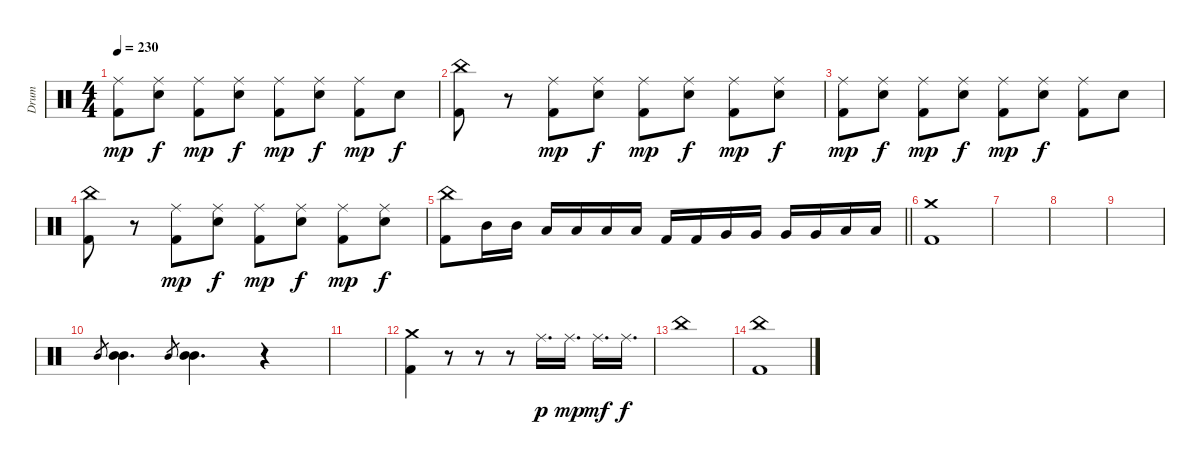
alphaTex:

\track ("Drum" "Drum") {instrument percussion}
\staff {score}
\articulation defaults
\ts (4 4)
\tempo 230
\clef neutral
\ks c
("Ride (middle)" "Kick (hit) 2").8{dy mp} ("Ride (middle)" "Electric Snare (hit)").8{dy f} ("Ride (middle)" "Kick (hit) 2").8{dy mp} ("Ride (middle)" "Electric Snare (hit)").8{dy f} ("Ride (middle)" "Kick (hit) 2").8{dy mp} ("Ride (middle)" "Electric Snare (hit)").8{dy f} ("Ride (middle)" "Kick (hit) 2").8{dy mp} "Electric Snare (hit)".8{dy f} |
("China (hit)" "Kick (hit) 2").8 r.8 ("Ride (middle)" "Kick (hit) 2").8{dy mp} ("Ride (middle)" "Electric Snare (hit)").8{dy f} ("Ride (middle)" "Kick (hit) 2").8{dy mp} ("Ride (middle)" "Electric Snare (hit)").8{dy f} ("Ride (middle)" "Kick (hit) 2").8{dy mp} ("Ride (middle)" "Electric Snare (hit)").8{dy f} |
("Ride (middle)" "Kick (hit) 2").8{dy mp} ("Ride (middle)" "Electric Snare (hit)").8{dy f} ("Ride (middle)" "Kick (hit) 2").8{dy mp} ("Ride (middle)" "Electric Snare (hit)").8{dy f} ("Ride (middle)" "Kick (hit) 2").8{dy mp} ("Ride (middle)" "Electric Snare (hit)").8{dy f} ("Ride (middle)" "Kick (hit) 2").8 "Electric Snare (hit)".8 |
("China (hit)" "Kick (hit) 2").8 r.8 ("Ride (middle)" "Kick (hit) 2").8{dy mp} ("Ride (middle)" "Electric Snare (hit)").8{dy f} ("Ride (middle)" "Kick (hit) 2").8{dy mp} ("Ride (middle)" "Electric Snare (hit)").8{dy f} ("Ride (middle)" "Kick (hit) 2").8{dy mp} ("Ride (middle)" "Electric Snare (hit)").8{dy f} |
\barLineRight lightlight
("China (hit)" "Kick (hit) 2").8 "Mid Tom (hit)".16 "Mid Tom (hit)".16 "Low Tom (hit)".16 "Low Tom (hit)".16 "Low Tom (hit)".16 "Low Tom (hit)".16 "Kick (hit) 2".16 "Kick (hit) 2".16 "Very Low Tom (hit)".16 "Very Low Tom (hit)".16 "Very Low Tom (hit)".16 "Very Low Tom (hit)".16 "Low Floor Tom (hit)".16 "Low Floor Tom (hit)".16 |
("Crash medium (hit)" "Kick (hit) 2").1 |
|
|
|
"Mid Tom (hit)".8{gr} ("Mid Tom (hit)" "Mid Tom (hit)").4{d} "Mid Tom (hit)".8{gr} ("Mid Tom (hit)" "Mid Tom (hit)").4{d} r.4 |
|
("Crash medium (hit)" "Kick (hit) 2").4 r.8 r.8 r.8 "Ride (middle)".16{d dy p} "Ride (middle)".16{d dy mp} "Ride (middle)".16{d dy mf} "Ride (middle)".16{d dy f} |
"China (hit)".1 |
("China (hit)" "Kick (hit) 2").1
